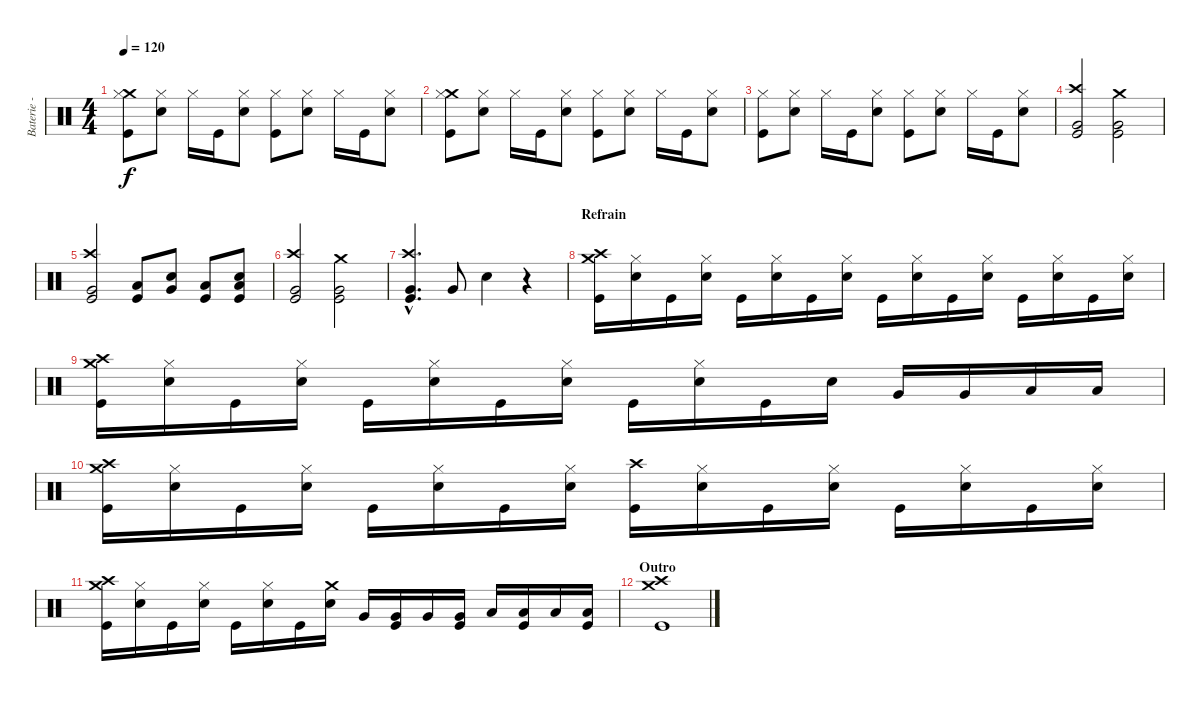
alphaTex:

\track ("Baterie - Nounours" "Baterie - ") {instrument percussion}
\staff {score}
\articulation defaults
\ts (4 4)
\tempo 120
\clef neutral
\ks c
("Crash medium (hit)" "Hi-Hat (closed)" "Kick (hit)").8{dy f} ("Hi-Hat (closed)" "Electric Snare (hit)").8 "Hi-Hat (closed)".16 "Kick (hit)".16 ("Hi-Hat (closed)" "Electric Snare (hit)").8 ("Hi-Hat (closed)" "Kick (hit)").8 ("Hi-Hat (closed)" "Electric Snare (hit)").8 "Hi-Hat (closed)".16 "Kick (hit)".16 ("Hi-Hat (closed)" "Electric Snare (hit)").8 |
("Crash medium (hit)" "Hi-Hat (closed)" "Kick (hit)").8 ("Hi-Hat (closed)" "Electric Snare (hit)").8 "Hi-Hat (closed)".16 "Kick (hit)".16 ("Hi-Hat (closed)" "Electric Snare (hit)").8 ("Hi-Hat (closed)" "Kick (hit)").8 ("Hi-Hat (closed)" "Electric Snare (hit)").8 "Hi-Hat (closed)".16 "Kick (hit)".16 ("Hi-Hat (closed)" "Electric Snare (hit)").8 |
("Hi-Hat (closed)" "Kick (hit)").8 ("Hi-Hat (closed)" "Electric Snare (hit)").8 "Hi-Hat (closed)".16 "Kick (hit)".16 ("Hi-Hat (closed)" "Electric Snare (hit)").8 ("Hi-Hat (closed)" "Kick (hit)").8 ("Hi-Hat (closed)" "Electric Snare (hit)").8 "Hi-Hat (closed)".16 "Kick (hit)".16 ("Hi-Hat (closed)" "Electric Snare (hit)").8 |
("Crash high (hit)" "Very Low Tom (hit)" "Kick (hit)").2 ("Crash medium (hit)" "Very Low Tom (hit)" "Kick (hit)").2 |
("Crash high (hit)" "Very Low Tom (hit)" "Kick (hit)").2 ("Low Floor Tom (hit)" "Kick (hit)").8 ("Electric Snare (hit)" "Very Low Tom (hit)").8 ("Low Floor Tom (hit)" "Kick (hit)").8 ("Electric Snare (hit)" "Low Floor Tom (hit)" "Kick (hit)").8 |
("Crash high (hit)" "Very Low Tom (hit)" "Kick (hit)").2 ("Crash medium (hit)" "Very Low Tom (hit)" "Kick (hit)").2 |
("Crash high (hit)"{hac} "Very Low Tom (hit)"{hac} "Kick (hit)"{hac}).4{d} "Very Low Tom (hit)".8 "Electric Snare (hit)".4 r.4 |
\section ("" "Refrain")
("Crash medium (hit)" "Crash high (hit)" "Kick (hit)").16 ("Hi-Hat (closed)" "Electric Snare (hit)").16 "Kick (hit)".16 ("Hi-Hat (closed)" "Electric Snare (hit)").16 "Kick (hit)".16 ("Hi-Hat (closed)" "Electric Snare (hit)").16 "Kick (hit)".16 ("Hi-Hat (closed)" "Electric Snare (hit)").16 "Kick (hit)".16 ("Hi-Hat (closed)" "Electric Snare (hit)").16 "Kick (hit)".16 ("Hi-Hat (closed)" "Electric Snare (hit)").16 "Kick (hit)".16 ("Hi-Hat (closed)" "Electric Snare (hit)").16 "Kick (hit)".16 ("Hi-Hat (closed)" "Electric Snare (hit)").16 |
("Crash medium (hit)" "Crash high (hit)" "Kick (hit)").16 ("Hi-Hat (closed)" "Electric Snare (hit)").16 "Kick (hit)".16 ("Hi-Hat (closed)" "Electric Snare (hit)").16 "Kick (hit)".16 ("Hi-Hat (closed)" "Electric Snare (hit)").16 "Kick (hit)".16 ("Hi-Hat (closed)" "Electric Snare (hit)").16 "Kick (hit)".16 ("Hi-Hat (closed)" "Electric Snare (hit)").16 "Kick (hit)".16 "Electric Snare (hit)".16 "Very Low Tom (hit)".16 "Very Low Tom (hit)".16 "Low Floor Tom (hit)".16 "Low Floor Tom (hit)".16 |
("Crash medium (hit)" "Crash high (hit)" "Kick (hit)").16 ("Hi-Hat (closed)" "Electric Snare (hit)").16 "Kick (hit)".16 ("Hi-Hat (closed)" "Electric Snare (hit)").16 "Kick (hit)".16 ("Hi-Hat (closed)" "Electric Snare (hit)").16 "Kick (hit)".16 ("Hi-Hat (closed)" "Electric Snare (hit)").16 ("Crash high (hit)" "Kick (hit)").16 ("Hi-Hat (closed)" "Electric Snare (hit)").16 "Kick (hit)".16 ("Hi-Hat (closed)" "Electric Snare (hit)").16 "Kick (hit)".16 ("Hi-Hat (closed)" "Electric Snare (hit)").16 "Kick (hit)".16 ("Hi-Hat (closed)" "Electric Snare (hit)").16 |
("Crash medium (hit)" "Crash high (hit)" "Kick (hit)").16 ("Hi-Hat (closed)" "Electric Snare (hit)").16 "Kick (hit)".16 ("Hi-Hat (closed)" "Electric Snare (hit)").16 "Kick (hit)".16 ("Hi-Hat (closed)" "Electric Snare (hit)").16 "Kick (hit)".16 ("Crash medium (hit)" "Electric Snare (hit)").16 "Very Low Tom (hit)".16 ("Very Low Tom (hit)" "Kick (hit)").16 "Very Low Tom (hit)".16 ("Very Low Tom (hit)" "Kick (hit)").16 "Low Floor Tom (hit)".16 ("Low Floor Tom (hit)" "Kick (hit)").16 "Low Floor Tom (hit)".16 ("Low Floor Tom (hit)" "Kick (hit)").16 |
\section ("" "Outro")
("Crash medium (hit)" "Crash high (hit)" "Kick (hit)").1
